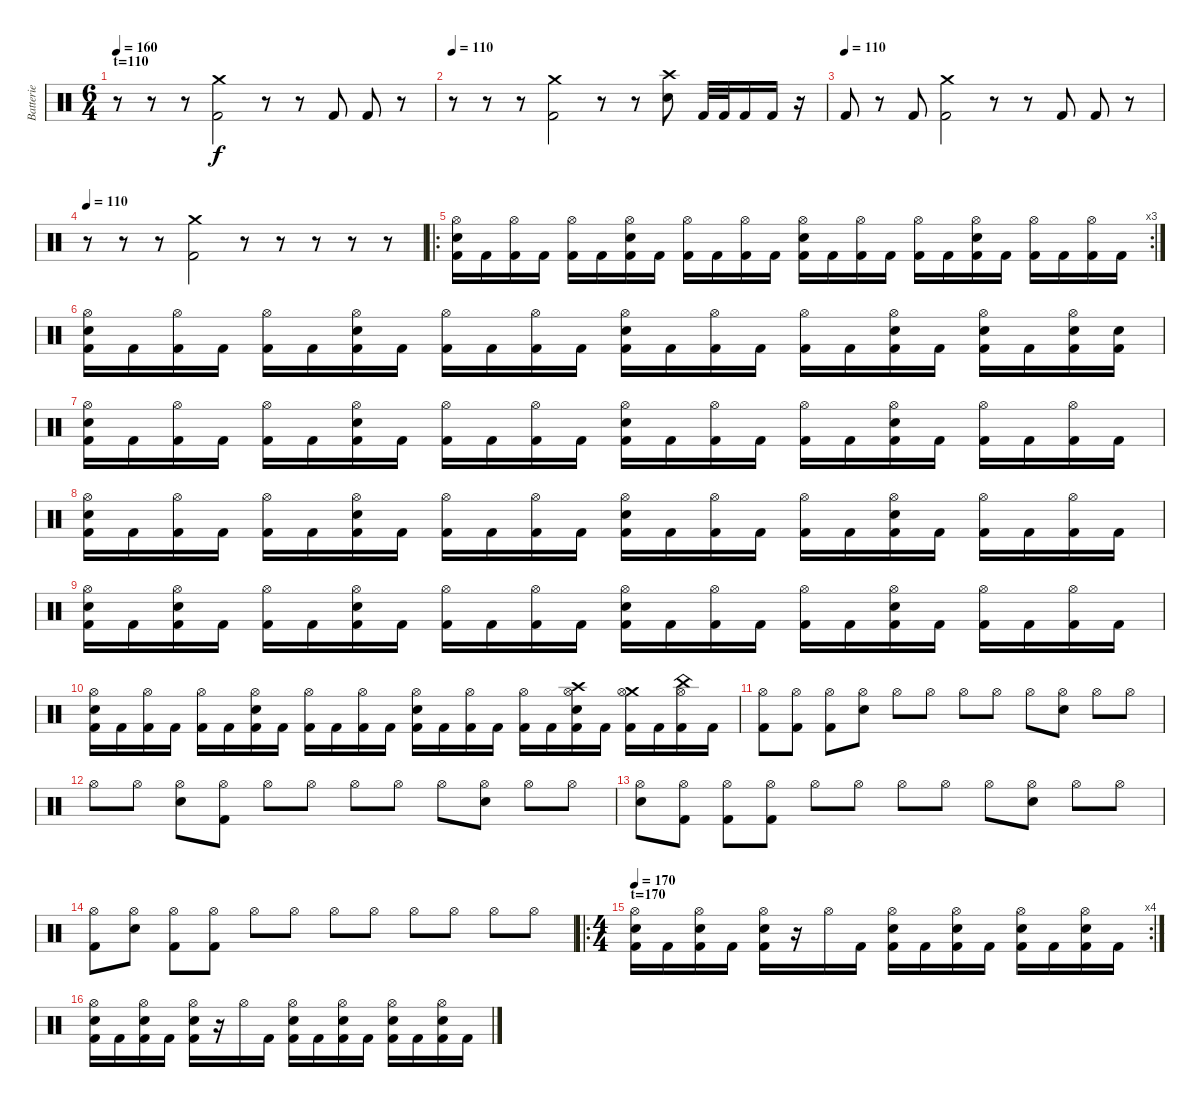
\track ("Batterie" "Batterie") {instrument percussion}
\staff {score}
\articulation defaults
\ts (6 4)
\section ("" "t=110")
\tempo 160
\tempo 110
\tempo 160
\clef neutral
\ks c
r.8{dy f} r.8 r.8 ("Crash medium (hit)" "Kick (hit) 2").2 r.8 r.8 "Kick (hit) 2".8 "Kick (hit) 2".8 r.8 |
\tempo 110
r.8 r.8 r.8 ("Crash medium (hit)" "Kick (hit) 2").2 r.8 r.8 ("Crash high (hit)" "Electric Snare (hit)").8 "Kick (hit) 2".32 "Kick (hit) 2".32 "Kick (hit) 2".16 "Kick (hit) 2".16 r.16 |
\tempo (110)
"Kick (hit) 2".8 r.8 "Kick (hit) 2".8 ("Crash medium (hit)" "Kick (hit) 2").2 r.8 r.8 "Kick (hit) 2".8 "Kick (hit) 2".8 r.8 |
\tempo 110
r.8 r.8 r.8 ("Crash medium (hit)" "Kick (hit) 2").2 r.8 r.8 r.8 r.8 r.8 |
\ro
\rc 3
("Electric Snare (hit)" "Hi-Hat (open)" "Kick (hit) 2").16 "Kick (hit) 2".16 ("Hi-Hat (open)" "Kick (hit) 2").16 "Kick (hit) 2".16 ("Hi-Hat (open)" "Kick (hit) 2").16 "Kick (hit) 2".16 ("Electric Snare (hit)" "Hi-Hat (open)" "Kick (hit) 2").16 "Kick (hit) 2".16 ("Hi-Hat (open)" "Kick (hit) 2").16 "Kick (hit) 2".16 ("Hi-Hat (open)" "Kick (hit) 2").16 "Kick (hit) 2".16 ("Electric Snare (hit)" "Hi-Hat (open)" "Kick (hit) 2").16 "Kick (hit) 2".16 ("Hi-Hat (open)" "Kick (hit) 2").16 "Kick (hit) 2".16 ("Hi-Hat (open)" "Kick (hit) 2").16 "Kick (hit) 2".16 ("Electric Snare (hit)" "Hi-Hat (open)" "Kick (hit) 2").16 "Kick (hit) 2".16 ("Hi-Hat (open)" "Kick (hit) 2").16 "Kick (hit) 2".16 ("Hi-Hat (open)" "Kick (hit) 2").16 "Kick (hit) 2".16 |
("Electric Snare (hit)" "Hi-Hat (open)" "Kick (hit) 2").16 "Kick (hit) 2".16 ("Hi-Hat (open)" "Kick (hit) 2").16 "Kick (hit) 2".16 ("Hi-Hat (open)" "Kick (hit) 2").16 "Kick (hit) 2".16 ("Electric Snare (hit)" "Hi-Hat (open)" "Kick (hit) 2").16 "Kick (hit) 2".16 ("Hi-Hat (open)" "Kick (hit) 2").16 "Kick (hit) 2".16 ("Hi-Hat (open)" "Kick (hit) 2").16 "Kick (hit) 2".16 ("Electric Snare (hit)" "Hi-Hat (open)" "Kick (hit) 2").16 "Kick (hit) 2".16 ("Hi-Hat (open)" "Kick (hit) 2").16 "Kick (hit) 2".16 ("Hi-Hat (open)" "Kick (hit) 2").16 "Kick (hit) 2".16 ("Electric Snare (hit)" "Hi-Hat (open)" "Kick (hit) 2").16 "Kick (hit) 2".16 ("Electric Snare (hit)" "Hi-Hat (open)" "Kick (hit) 2").16 "Kick (hit) 2".16 ("Electric Snare (hit)" "Hi-Hat (open)" "Kick (hit) 2").16 ("Electric Snare (hit)" "Kick (hit) 2").16 |
("Electric Snare (hit)" "Hi-Hat (open)" "Kick (hit) 2").16 "Kick (hit) 2".16 ("Hi-Hat (open)" "Kick (hit) 2").16 "Kick (hit) 2".16 ("Hi-Hat (open)" "Kick (hit) 2").16 "Kick (hit) 2".16 ("Electric Snare (hit)" "Hi-Hat (open)" "Kick (hit) 2").16 "Kick (hit) 2".16 ("Hi-Hat (open)" "Kick (hit) 2").16 "Kick (hit) 2".16 ("Hi-Hat (open)" "Kick (hit) 2").16 "Kick (hit) 2".16 ("Electric Snare (hit)" "Hi-Hat (open)" "Kick (hit) 2").16 "Kick (hit) 2".16 ("Hi-Hat (open)" "Kick (hit) 2").16 "Kick (hit) 2".16 ("Hi-Hat (open)" "Kick (hit) 2").16 "Kick (hit) 2".16 ("Electric Snare (hit)" "Hi-Hat (open)" "Kick (hit) 2").16 "Kick (hit) 2".16 ("Hi-Hat (open)" "Kick (hit) 2").16 "Kick (hit) 2".16 ("Hi-Hat (open)" "Kick (hit) 2").16 "Kick (hit) 2".16 |
("Electric Snare (hit)" "Hi-Hat (open)" "Kick (hit) 2").16 "Kick (hit) 2".16 ("Hi-Hat (open)" "Kick (hit) 2").16 "Kick (hit) 2".16 ("Hi-Hat (open)" "Kick (hit) 2").16 "Kick (hit) 2".16 ("Electric Snare (hit)" "Hi-Hat (open)" "Kick (hit) 2").16 "Kick (hit) 2".16 ("Hi-Hat (open)" "Kick (hit) 2").16 "Kick (hit) 2".16 ("Hi-Hat (open)" "Kick (hit) 2").16 "Kick (hit) 2".16 ("Electric Snare (hit)" "Hi-Hat (open)" "Kick (hit) 2").16 "Kick (hit) 2".16 ("Hi-Hat (open)" "Kick (hit) 2").16 "Kick (hit) 2".16 ("Hi-Hat (open)" "Kick (hit) 2").16 "Kick (hit) 2".16 ("Electric Snare (hit)" "Hi-Hat (open)" "Kick (hit) 2").16 "Kick (hit) 2".16 ("Hi-Hat (open)" "Kick (hit) 2").16 "Kick (hit) 2".16 ("Hi-Hat (open)" "Kick (hit) 2").16 "Kick (hit) 2".16 |
("Electric Snare (hit)" "Hi-Hat (open)" "Kick (hit) 2").16 "Kick (hit) 2".16 ("Electric Snare (hit)" "Hi-Hat (open)" "Kick (hit) 2").16 "Kick (hit) 2".16 ("Hi-Hat (open)" "Kick (hit) 2").16 "Kick (hit) 2".16 ("Electric Snare (hit)" "Hi-Hat (open)" "Kick (hit) 2").16 "Kick (hit) 2".16 ("Hi-Hat (open)" "Kick (hit) 2").16 "Kick (hit) 2".16 ("Hi-Hat (open)" "Kick (hit) 2").16 "Kick (hit) 2".16 ("Electric Snare (hit)" "Hi-Hat (open)" "Kick (hit) 2").16 "Kick (hit) 2".16 ("Hi-Hat (open)" "Kick (hit) 2").16 "Kick (hit) 2".16 ("Hi-Hat (open)" "Kick (hit) 2").16 "Kick (hit) 2".16 ("Electric Snare (hit)" "Hi-Hat (open)" "Kick (hit) 2").16 "Kick (hit) 2".16 ("Hi-Hat (open)" "Kick (hit) 2").16 "Kick (hit) 2".16 ("Hi-Hat (open)" "Kick (hit) 2").16 "Kick (hit) 2".16 |
("Electric Snare (hit)" "Hi-Hat (open)" "Kick (hit) 2").16 "Kick (hit) 2".16 ("Hi-Hat (open)" "Kick (hit) 2").16 "Kick (hit) 2".16 ("Hi-Hat (open)" "Kick (hit) 2").16 "Kick (hit) 2".16 ("Electric Snare (hit)" "Hi-Hat (open)" "Kick (hit) 2").16 "Kick (hit) 2".16 ("Hi-Hat (open)" "Kick (hit) 2").16 "Kick (hit) 2".16 ("Hi-Hat (open)" "Kick (hit) 2").16 "Kick (hit) 2".16 ("Electric Snare (hit)" "Hi-Hat (open)" "Kick (hit) 2").16 "Kick (hit) 2".16 ("Hi-Hat (open)" "Kick (hit) 2").16 "Kick (hit) 2".16 ("Hi-Hat (open)" "Kick (hit) 2").16 "Kick (hit) 2".16 ("Crash high (hit)" "Electric Snare (hit)" "Hi-Hat (open)" "Kick (hit) 2").16 "Kick (hit) 2".16 ("Crash medium (hit)" "Hi-Hat (open)" "Kick (hit) 2").16 "Kick (hit) 2".16 ("China (hit)" "Hi-Hat (open)" "Kick (hit) 2").16 "Kick (hit) 2".16 |
("Hi-Hat (open)" "Kick (hit) 2").8 ("Hi-Hat (open)" "Kick (hit) 2").8 ("Hi-Hat (open)" "Kick (hit) 2").8 ("Hi-Hat (open)" "Electric Snare (hit)").8 "Hi-Hat (open)".8 "Hi-Hat (open)".8 "Hi-Hat (open)".8 "Hi-Hat (open)".8 "Hi-Hat (open)".8 ("Hi-Hat (open)" "Electric Snare (hit)").8 "Hi-Hat (open)".8 "Hi-Hat (open)".8 |
"Hi-Hat (open)".8 "Hi-Hat (open)".8 ("Hi-Hat (open)" "Electric Snare (hit)").8 ("Hi-Hat (open)" "Kick (hit) 2").8 "Hi-Hat (open)".8 "Hi-Hat (open)".8 "Hi-Hat (open)".8 "Hi-Hat (open)".8 "Hi-Hat (open)".8 ("Hi-Hat (open)" "Electric Snare (hit)").8 "Hi-Hat (open)".8 "Hi-Hat (open)".8 |
("Hi-Hat (open)" "Electric Snare (hit)").8 ("Hi-Hat (open)" "Kick (hit) 2").8 ("Hi-Hat (open)" "Kick (hit) 2").8 ("Hi-Hat (open)" "Kick (hit) 2").8 "Hi-Hat (open)".8 "Hi-Hat (open)".8 "Hi-Hat (open)".8 "Hi-Hat (open)".8 "Hi-Hat (open)".8 ("Hi-Hat (open)" "Electric Snare (hit)").8 "Hi-Hat (open)".8 "Hi-Hat (open)".8 |
("Hi-Hat (open)" "Kick (hit) 2").8 ("Hi-Hat (open)" "Electric Snare (hit)").8 ("Hi-Hat (open)" "Kick (hit) 2").8 ("Hi-Hat (open)" "Kick (hit) 2").8 "Hi-Hat (open)".8 "Hi-Hat (open)".8 "Hi-Hat (open)".8 "Hi-Hat (open)".8 "Hi-Hat (open)".8 "Hi-Hat (open)".8 "Hi-Hat (open)".8 "Hi-Hat (open)".8 |
\ro
\rc 4
\ts (4 4)
\section ("" "t=170")
\tempo 160
\tempo 170
("Hi-Hat (open)" "Electric Snare (hit)" "Kick (hit) 2").16 "Kick (hit) 2".16 ("Hi-Hat (open)" "Electric Snare (hit)" "Kick (hit) 2").16 "Kick (hit) 2".16 ("Hi-Hat (open)" "Electric Snare (hit)" "Kick (hit) 2").16 r.16 "Hi-Hat (open)".16 "Kick (hit) 2".16 ("Hi-Hat (open)" "Electric Snare (hit)" "Kick (hit) 2").16 "Kick (hit) 2".16 ("Hi-Hat (open)" "Electric Snare (hit)" "Kick (hit) 2").16 "Kick (hit) 2".16 ("Hi-Hat (open)" "Electric Snare (hit)" "Kick (hit) 2").16 "Kick (hit) 2".16 ("Hi-Hat (open)" "Electric Snare (hit)" "Kick (hit) 2").16 "Kick (hit) 2".16 |
("Hi-Hat (open)" "Electric Snare (hit)" "Kick (hit) 2").16 "Kick (hit) 2".16 ("Hi-Hat (open)" "Electric Snare (hit)" "Kick (hit) 2").16 "Kick (hit) 2".16 ("Hi-Hat (open)" "Electric Snare (hit)" "Kick (hit) 2").16 r.16 "Hi-Hat (open)".16 "Kick (hit) 2".16 ("Hi-Hat (open)" "Electric Snare (hit)" "Kick (hit) 2").16 "Kick (hit) 2".16 ("Hi-Hat (open)" "Electric Snare (hit)" "Kick (hit) 2").16 "Kick (hit) 2".16 ("Hi-Hat (open)" "Electric Snare (hit)" "Kick (hit) 2").16 "Kick (hit) 2".16 ("Hi-Hat (open)" "Electric Snare (hit)" "Kick (hit) 2").16 "Kick (hit) 2".16
